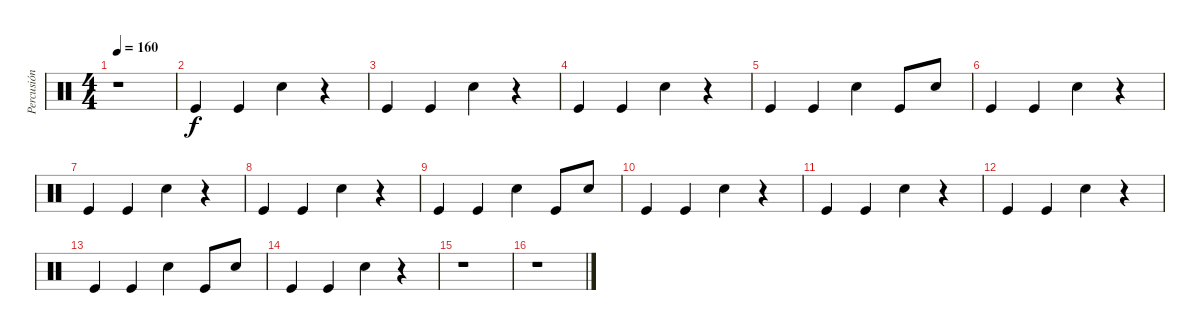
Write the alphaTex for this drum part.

\track ("Percusión" "Percusión") {instrument percussion}
\staff {score}
\articulation defaults
\ts (4 4)
\tempo 160
\clef neutral
\ks c
r.1{dy f} |
"Kick (hit)".4 "Kick (hit)".4 "Electric Snare (hit)".4 r.4 |
"Kick (hit)".4 "Kick (hit)".4 "Electric Snare (hit)".4 r.4 |
"Kick (hit)".4 "Kick (hit)".4 "Electric Snare (hit)".4 r.4 |
"Kick (hit)".4 "Kick (hit)".4 "Electric Snare (hit)".4 "Kick (hit)".8 "Electric Snare (hit)".8 |
"Kick (hit)".4 "Kick (hit)".4 "Electric Snare (hit)".4 r.4 |
"Kick (hit)".4 "Kick (hit)".4 "Electric Snare (hit)".4 r.4 |
"Kick (hit)".4 "Kick (hit)".4 "Electric Snare (hit)".4 r.4 |
"Kick (hit)".4 "Kick (hit)".4 "Electric Snare (hit)".4 "Kick (hit)".8 "Electric Snare (hit)".8 |
"Kick (hit)".4 "Kick (hit)".4 "Electric Snare (hit)".4 r.4 |
"Kick (hit)".4 "Kick (hit)".4 "Electric Snare (hit)".4 r.4 |
"Kick (hit)".4 "Kick (hit)".4 "Electric Snare (hit)".4 r.4 |
"Kick (hit)".4 "Kick (hit)".4 "Electric Snare (hit)".4 "Kick (hit)".8 "Electric Snare (hit)".8 |
"Kick (hit)".4 "Kick (hit)".4 "Electric Snare (hit)".4 r.4 |
r.1 |
r.1
